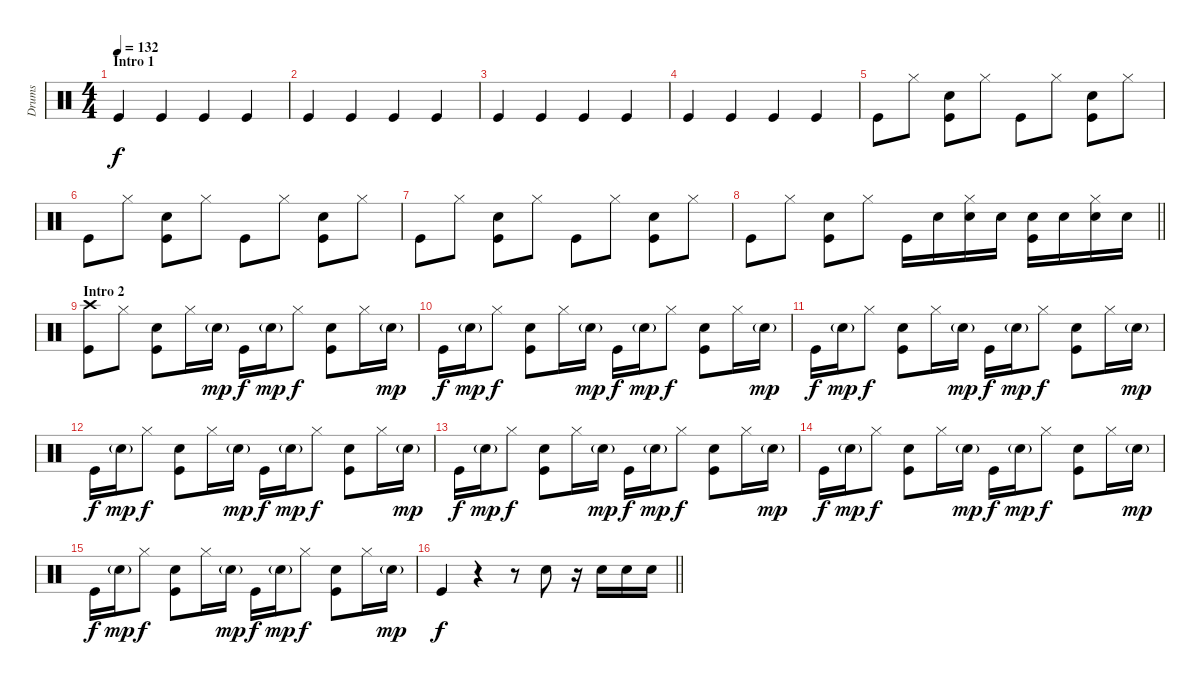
\track ("Drums" "Drums") {instrument percussion}
\staff {score}
\articulation defaults
\ts (4 4)
\section ("" "Intro 1")
\tempo 132
\clef neutral
\ks c "Kick (hit)".4{dy f} "Kick (hit)".4 "Kick (hit)".4 "Kick (hit)".4
|
"Kick (hit)".4 "Kick (hit)".4 "Kick (hit)".4 "Kick (hit)".4 |
"Kick (hit)".4 "Kick (hit)".4 "Kick (hit)".4 "Kick (hit)".4 |
"Kick (hit)".4 "Kick (hit)".4 "Kick (hit)".4 "Kick (hit)".4 |
"Kick (hit)".8 "Hi-Hat (closed)".8 ("Electric Snare (hit)" "Kick (hit)").8 "Hi-Hat (closed)".8 "Kick (hit)".8 "Hi-Hat (closed)".8 ("Electric Snare (hit)" "Kick (hit)").8 "Hi-Hat (closed)".8 |
"Kick (hit)".8 "Hi-Hat (closed)".8 ("Electric Snare (hit)" "Kick (hit)").8 "Hi-Hat (closed)".8 "Kick (hit)".8 "Hi-Hat (closed)".8 ("Electric Snare (hit)" "Kick (hit)").8 "Hi-Hat (closed)".8 |
"Kick (hit)".8 "Hi-Hat (closed)".8 ("Electric Snare (hit)" "Kick (hit)").8 "Hi-Hat (closed)".8 "Kick (hit)".8 "Hi-Hat (closed)".8 ("Electric Snare (hit)" "Kick (hit)").8 "Hi-Hat (closed)".8 |
\barLineRight lightlight "Kick (hit)".8 "Hi-Hat (closed)".8
("Electric Snare (hit)" "Kick (hit)").8 "Hi-Hat (closed)".8 "Kick (hit)".16 "Electric Snare (hit)".16 ("Hi-Hat (closed)" "Electric Snare (hit)").16 "Electric Snare (hit)".16 ("Electric Snare (hit)" "Kick (hit)").16 "Electric Snare (hit)".16 ("Hi-Hat (closed)" "Electric Snare (hit)").16 "Electric Snare (hit)".16 |
\section ("" "Intro 2")
("Crash high (hit)" "Kick (hit)").8 "Hi-Hat (closed)".8 ("Electric Snare (hit)" "Kick (hit)").8 "Hi-Hat (closed)".16 "Electric Snare (hit)"{g}.16{dy mp} "Kick (hit)".16{dy f} "Electric Snare (hit)"{g}.16{dy mp} "Hi-Hat (closed)".8{dy f} ("Electric Snare (hit)" "Kick (hit)").8 "Hi-Hat (closed)".16 "Electric Snare (hit)"{g}.16{dy mp} |
"Kick (hit)".16{dy f} "Electric Snare (hit)"{g}.16{dy mp} "Hi-Hat (closed)".8{dy f} ("Electric Snare (hit)" "Kick (hit)").8 "Hi-Hat (closed)".16 "Electric Snare (hit)"{g}.16{dy mp} "Kick (hit)".16{dy f} "Electric Snare (hit)"{g}.16{dy mp} "Hi-Hat (closed)".8{dy f} ("Electric Snare (hit)" "Kick (hit)").8 "Hi-Hat (closed)".16 "Electric Snare (hit)"{g}.16{dy mp} |
"Kick (hit)".16{dy f} "Electric Snare (hit)"{g}.16{dy mp} "Hi-Hat (closed)".8{dy f} ("Electric Snare (hit)" "Kick (hit)").8 "Hi-Hat (closed)".16 "Electric Snare (hit)"{g}.16{dy mp} "Kick (hit)".16{dy f} "Electric Snare (hit)"{g}.16{dy mp} "Hi-Hat (closed)".8{dy f} ("Electric Snare (hit)" "Kick (hit)").8 "Hi-Hat (closed)".16 "Electric Snare (hit)"{g}.16{dy mp} |
"Kick (hit)".16{dy f} "Electric Snare (hit)"{g}.16{dy mp} "Hi-Hat (closed)".8{dy f} ("Electric Snare (hit)" "Kick (hit)").8 "Hi-Hat (closed)".16 "Electric Snare (hit)"{g}.16{dy mp} "Kick (hit)".16{dy f} "Electric Snare (hit)"{g}.16{dy mp} "Hi-Hat (closed)".8{dy f} ("Electric Snare (hit)" "Kick (hit)").8 "Hi-Hat (closed)".16 "Electric Snare (hit)"{g}.16{dy mp} |
"Kick (hit)".16{dy f} "Electric Snare (hit)"{g}.16{dy mp} "Hi-Hat (closed)".8{dy f} ("Electric Snare (hit)" "Kick (hit)").8 "Hi-Hat (closed)".16 "Electric Snare (hit)"{g}.16{dy mp} "Kick (hit)".16{dy f} "Electric Snare (hit)"{g}.16{dy mp} "Hi-Hat (closed)".8{dy f} ("Electric Snare (hit)" "Kick (hit)").8 "Hi-Hat (closed)".16 "Electric Snare (hit)"{g}.16{dy mp} |
"Kick (hit)".16{dy f} "Electric Snare (hit)"{g}.16{dy mp} "Hi-Hat (closed)".8{dy f} ("Electric Snare (hit)" "Kick (hit)").8 "Hi-Hat (closed)".16 "Electric Snare (hit)"{g}.16{dy mp} "Kick (hit)".16{dy f} "Electric Snare (hit)"{g}.16{dy mp} "Hi-Hat (closed)".8{dy f} ("Electric Snare (hit)" "Kick (hit)").8 "Hi-Hat (closed)".16 "Electric Snare (hit)"{g}.16{dy mp} |
"Kick (hit)".16{dy f} "Electric Snare (hit)"{g}.16{dy mp} "Hi-Hat (closed)".8{dy f} ("Electric Snare (hit)" "Kick (hit)").8 "Hi-Hat (closed)".16 "Electric Snare (hit)"{g}.16{dy mp} "Kick (hit)".16{dy f} "Electric Snare (hit)"{g}.16{dy mp} "Hi-Hat (closed)".8{dy f} ("Electric Snare (hit)" "Kick (hit)").8 "Hi-Hat (closed)".16 "Electric Snare (hit)"{g}.16{dy mp} |
\barLineRight lightlight "Kick (hit)".4{dy f}
r.4 r.8 "Electric Snare (hit)".8 r.16 "Electric Snare (hit)".16 "Electric Snare (hit)".16 "Electric Snare (hit)".16
